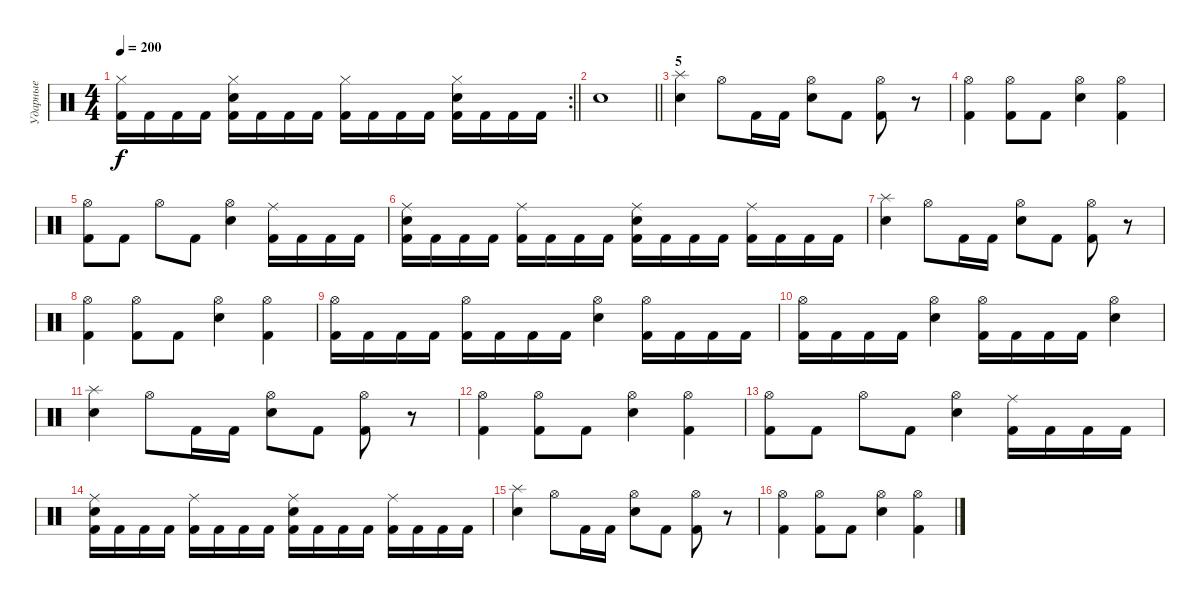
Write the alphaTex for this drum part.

\track ("Ударные" "Ударные") {instrument percussion}
\staff {score}
\articulation defaults
\rc 2
\ts (4 4)
\tempo 200
\clef neutral
\barLineRight lightlight
\ks c
("Hi-Hat (closed)" "Kick (hit) 2").16{dy f} "Kick (hit) 2".16 "Kick (hit) 2".16 "Kick (hit) 2".16 ("Hi-Hat (closed)" "Electric Snare (hit)" "Kick (hit) 2").16 "Kick (hit) 2".16 "Kick (hit) 2".16 "Kick (hit) 2".16 ("Hi-Hat (closed)" "Kick (hit) 2").16 "Kick (hit) 2".16 "Kick (hit) 2".16 "Kick (hit) 2".16 ("Hi-Hat (closed)" "Electric Snare (hit)" "Kick (hit) 2").16 "Kick (hit) 2".16 "Kick (hit) 2".16 "Kick (hit) 2".16 |
\barLineRight lightlight "Electric Snare (hit)".1
|
\section ("" "5")
("Splash (hit)" "Electric Snare (hit)").4 "Hi-Hat (open)".8 "Kick (hit) 2".16 "Kick (hit) 2".16 ("Hi-Hat (open)" "Electric Snare (hit)").8 "Kick (hit) 2".8 ("Hi-Hat (open)" "Kick (hit) 2").8 r.8 |
("Hi-Hat (open)" "Kick (hit) 2").4 ("Hi-Hat (open)" "Kick (hit) 2").8 "Kick (hit) 2".8 ("Hi-Hat (open)" "Electric Snare (hit)").4 ("Hi-Hat (open)" "Kick (hit) 2").4 |
("Hi-Hat (open)" "Kick (hit) 2").8 "Kick (hit) 2".8 "Hi-Hat (open)".8 "Kick (hit) 2".8 ("Hi-Hat (open)" "Electric Snare (hit)").4 ("Ride (middle)" "Kick (hit) 2").16 "Kick (hit) 2".16 "Kick (hit) 2".16 "Kick (hit) 2".16 |
("Ride (middle)" "Electric Snare (hit)" "Kick (hit) 2").16 "Kick (hit) 2".16 "Kick (hit) 2".16 "Kick (hit) 2".16 ("Ride (middle)" "Kick (hit) 2").16 "Kick (hit) 2".16 "Kick (hit) 2".16 "Kick (hit) 2".16 ("Ride (middle)" "Electric Snare (hit)" "Kick (hit) 2").16 "Kick (hit) 2".16 "Kick (hit) 2".16 "Kick (hit) 2".16 ("Ride (middle)" "Kick (hit) 2").16 "Kick (hit) 2".16 "Kick (hit) 2".16 "Kick (hit) 2".16 |
("Splash (hit)" "Electric Snare (hit)").4 "Hi-Hat (open)".8 "Kick (hit) 2".16 "Kick (hit) 2".16 ("Hi-Hat (open)" "Electric Snare (hit)").8 "Kick (hit) 2".8 ("Hi-Hat (open)" "Kick (hit) 2").8 r.8 |
("Hi-Hat (open)" "Kick (hit) 2").4 ("Hi-Hat (open)" "Kick (hit) 2").8 "Kick (hit) 2".8 ("Hi-Hat (open)" "Electric Snare (hit)").4 ("Hi-Hat (open)" "Kick (hit) 2").4 |
("Hi-Hat (open)" "Kick (hit) 2").16 "Kick (hit) 2".16 "Kick (hit) 2".16 "Kick (hit) 2".16 ("Hi-Hat (open)" "Kick (hit) 2").16 "Kick (hit) 2".16 "Kick (hit) 2".16 "Kick (hit) 2".16 ("Hi-Hat (open)" "Electric Snare (hit)").4 ("Hi-Hat (open)" "Kick (hit) 2").16 "Kick (hit) 2".16 "Kick (hit) 2".16 "Kick (hit) 2".16 |
("Hi-Hat (open)" "Kick (hit) 2").16 "Kick (hit) 2".16 "Kick (hit) 2".16 "Kick (hit) 2".16 ("Hi-Hat (open)" "Electric Snare (hit)").4 ("Hi-Hat (open)" "Kick (hit) 2").16 "Kick (hit) 2".16 "Kick (hit) 2".16 "Kick (hit) 2".16 ("Hi-Hat (open)" "Electric Snare (hit)").4 |
("Splash (hit)" "Electric Snare (hit)").4 "Hi-Hat (open)".8 "Kick (hit) 2".16 "Kick (hit) 2".16 ("Hi-Hat (open)" "Electric Snare (hit)").8 "Kick (hit) 2".8 ("Hi-Hat (open)" "Kick (hit) 2").8 r.8 |
("Hi-Hat (open)" "Kick (hit) 2").4 ("Hi-Hat (open)" "Kick (hit) 2").8 "Kick (hit) 2".8 ("Hi-Hat (open)" "Electric Snare (hit)").4 ("Hi-Hat (open)" "Kick (hit) 2").4 |
("Hi-Hat (open)" "Kick (hit) 2").8 "Kick (hit) 2".8 "Hi-Hat (open)".8 "Kick (hit) 2".8 ("Hi-Hat (open)" "Electric Snare (hit)").4 ("Ride (middle)" "Kick (hit) 2").16 "Kick (hit) 2".16 "Kick (hit) 2".16 "Kick (hit) 2".16 |
("Ride (middle)" "Electric Snare (hit)" "Kick (hit) 2").16 "Kick (hit) 2".16 "Kick (hit) 2".16 "Kick (hit) 2".16 ("Ride (middle)" "Kick (hit) 2").16 "Kick (hit) 2".16 "Kick (hit) 2".16 "Kick (hit) 2".16 ("Ride (middle)" "Electric Snare (hit)" "Kick (hit) 2").16 "Kick (hit) 2".16 "Kick (hit) 2".16 "Kick (hit) 2".16 ("Ride (middle)" "Kick (hit) 2").16 "Kick (hit) 2".16 "Kick (hit) 2".16 "Kick (hit) 2".16 |
("Splash (hit)" "Electric Snare (hit)").4 "Hi-Hat (open)".8 "Kick (hit) 2".16 "Kick (hit) 2".16 ("Hi-Hat (open)" "Electric Snare (hit)").8 "Kick (hit) 2".8 ("Hi-Hat (open)" "Kick (hit) 2").8 r.8 |
("Hi-Hat (open)" "Kick (hit) 2").4 ("Hi-Hat (open)" "Kick (hit) 2").8 "Kick (hit) 2".8 ("Hi-Hat (open)" "Electric Snare (hit)").4 ("Hi-Hat (open)" "Kick (hit) 2").4
